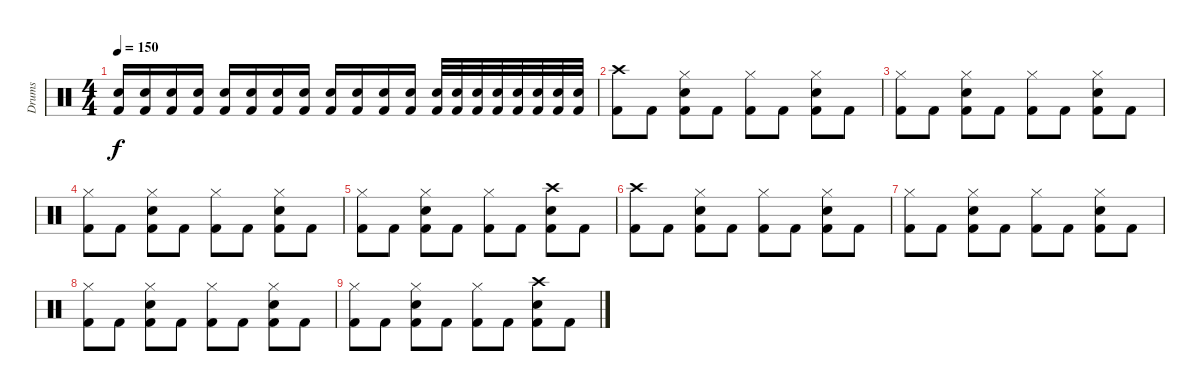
\track ("Drums" "Drums") {instrument percussion}
\staff {score}
\articulation defaults
\ts (4 4)
\tempo 150
\clef neutral
\ks c
("Electric Snare (hit)" "Kick (hit) 2").16{dy f} ("Electric Snare (hit)" "Kick (hit) 2").16 ("Electric Snare (hit)" "Kick (hit) 2").16 ("Electric Snare (hit)" "Kick (hit) 2").16 ("Electric Snare (hit)" "Kick (hit) 2").16 ("Electric Snare (hit)" "Kick (hit) 2").16 ("Electric Snare (hit)" "Kick (hit) 2").16 ("Electric Snare (hit)" "Kick (hit) 2").16 ("Electric Snare (hit)" "Kick (hit) 2").16 ("Electric Snare (hit)" "Kick (hit) 2").16 ("Electric Snare (hit)" "Kick (hit) 2").16 ("Electric Snare (hit)" "Kick (hit) 2").16 ("Electric Snare (hit)" "Kick (hit) 2").32 ("Electric Snare (hit)" "Kick (hit) 2").32 ("Electric Snare (hit)" "Kick (hit) 2").32 ("Electric Snare (hit)" "Kick (hit) 2").32 ("Electric Snare (hit)" "Kick (hit) 2").32 ("Electric Snare (hit)" "Kick (hit) 2").32 ("Electric Snare (hit)" "Kick (hit) 2").32 ("Electric Snare (hit)" "Kick (hit) 2").32 |
("Crash high (hit)" "Kick (hit) 2").8 "Kick (hit) 2".8 ("Hi-Hat (closed)" "Electric Snare (hit)" "Kick (hit) 2").8 "Kick (hit) 2".8 ("Hi-Hat (closed)" "Kick (hit) 2").8 "Kick (hit) 2".8 ("Hi-Hat (closed)" "Electric Snare (hit)" "Kick (hit) 2").8 "Kick (hit) 2".8 |
("Hi-Hat (closed)" "Kick (hit) 2").8 "Kick (hit) 2".8 ("Hi-Hat (closed)" "Electric Snare (hit)" "Kick (hit) 2").8 "Kick (hit) 2".8 ("Hi-Hat (closed)" "Kick (hit) 2").8 "Kick (hit) 2".8 ("Hi-Hat (closed)" "Electric Snare (hit)" "Kick (hit) 2").8 "Kick (hit) 2".8 |
("Hi-Hat (closed)" "Kick (hit) 2").8 "Kick (hit) 2".8 ("Hi-Hat (closed)" "Electric Snare (hit)" "Kick (hit) 2").8 "Kick (hit) 2".8 ("Hi-Hat (closed)" "Kick (hit) 2").8 "Kick (hit) 2".8 ("Hi-Hat (closed)" "Electric Snare (hit)" "Kick (hit) 2").8 "Kick (hit) 2".8 |
("Hi-Hat (closed)" "Kick (hit) 2").8 "Kick (hit) 2".8 ("Hi-Hat (closed)" "Electric Snare (hit)" "Kick (hit) 2").8 "Kick (hit) 2".8 ("Hi-Hat (closed)" "Kick (hit) 2").8 "Kick (hit) 2".8 ("Crash high (hit)" "Electric Snare (hit)" "Kick (hit) 2").8 "Kick (hit) 2".8 |
("Crash high (hit)" "Kick (hit) 2").8 "Kick (hit) 2".8 ("Hi-Hat (closed)" "Electric Snare (hit)" "Kick (hit) 2").8 "Kick (hit) 2".8 ("Hi-Hat (closed)" "Kick (hit) 2").8 "Kick (hit) 2".8 ("Hi-Hat (closed)" "Electric Snare (hit)" "Kick (hit) 2").8 "Kick (hit) 2".8 |
("Hi-Hat (closed)" "Kick (hit) 2").8 "Kick (hit) 2".8 ("Hi-Hat (closed)" "Electric Snare (hit)" "Kick (hit) 2").8 "Kick (hit) 2".8 ("Hi-Hat (closed)" "Kick (hit) 2").8 "Kick (hit) 2".8 ("Hi-Hat (closed)" "Electric Snare (hit)" "Kick (hit) 2").8 "Kick (hit) 2".8 |
("Hi-Hat (closed)" "Kick (hit) 2").8 "Kick (hit) 2".8 ("Hi-Hat (closed)" "Electric Snare (hit)" "Kick (hit) 2").8 "Kick (hit) 2".8 ("Hi-Hat (closed)" "Kick (hit) 2").8 "Kick (hit) 2".8 ("Hi-Hat (closed)" "Electric Snare (hit)" "Kick (hit) 2").8 "Kick (hit) 2".8 |
("Hi-Hat (closed)" "Kick (hit) 2").8 "Kick (hit) 2".8 ("Hi-Hat (closed)" "Electric Snare (hit)" "Kick (hit) 2").8 "Kick (hit) 2".8 ("Hi-Hat (closed)" "Kick (hit) 2").8 "Kick (hit) 2".8 ("Crash high (hit)" "Electric Snare (hit)" "Kick (hit) 2").8 "Kick (hit) 2".8
